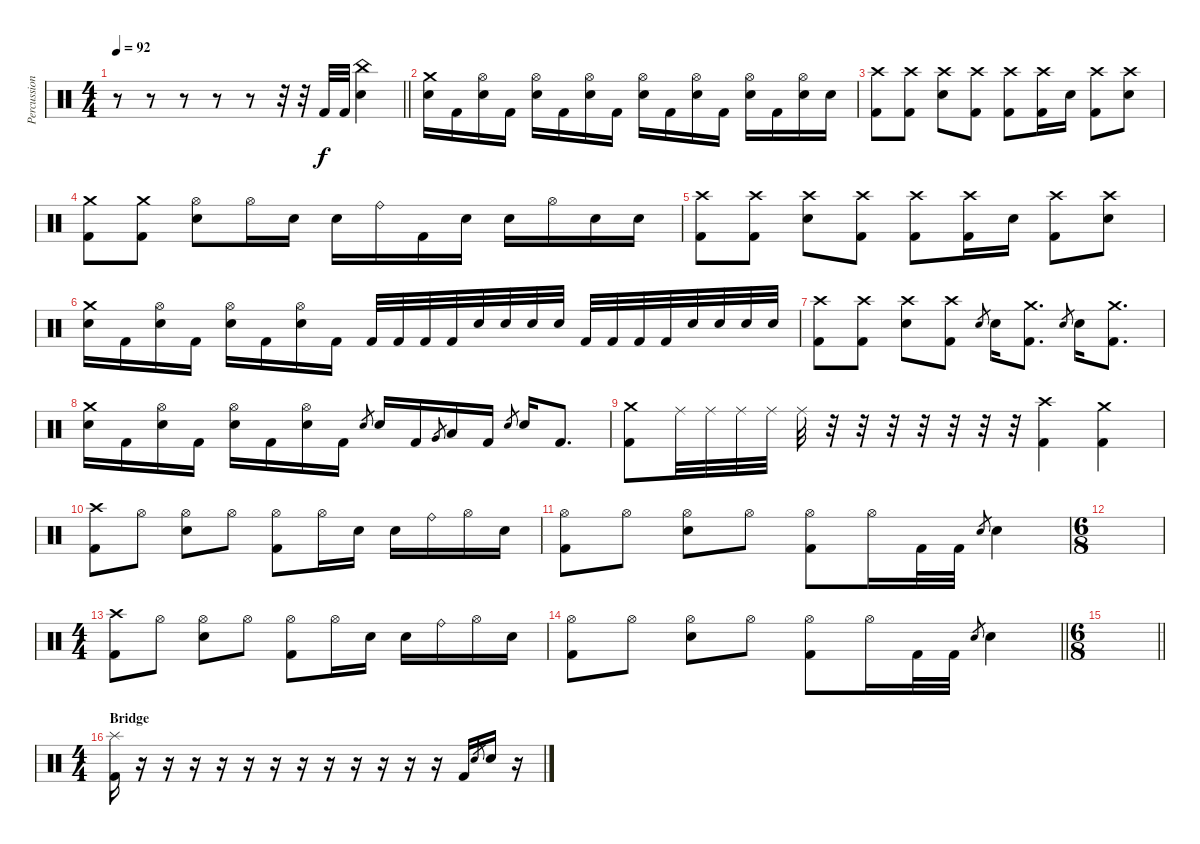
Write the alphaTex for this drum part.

\track ("Percussion" "Percussion") {solo instrument percussion}
\staff {score}
\articulation defaults
\ts (4 4)
\tempo 92
\clef neutral
\barLineRight lightlight
\ks c
r.8{dy f} r.8 r.8 r.8 r.8 r.32 r.32 "Kick (hit) 2".32 "Kick (hit) 2".32 ("China (hit)" "Electric Snare (hit)").4 |
("Crash medium (hit)" "Electric Snare (hit)").16 "Kick (hit) 2".16 ("Hi-Hat (open)" "Electric Snare (hit)").16 "Kick (hit) 2".16 ("Hi-Hat (open)" "Electric Snare (hit)").16 "Kick (hit) 2".16 ("Hi-Hat (open)" "Electric Snare (hit)").16 "Kick (hit) 2".16 ("Hi-Hat (open)" "Electric Snare (hit)").16 "Kick (hit) 2".16 ("Hi-Hat (open)" "Electric Snare (hit)").16 "Kick (hit) 2".16 ("Hi-Hat (open)" "Electric Snare (hit)").16 "Kick (hit) 2".16 ("Hi-Hat (open)" "Electric Snare (hit)").16 "Electric Snare (hit)".16 |
("Crash high (hit)" "Kick (hit) 2").8 ("Crash high (hit)" "Kick (hit) 2").8 ("Crash high (hit)" "Electric Snare (hit)").8 ("Crash high (hit)" "Kick (hit) 2").8 ("Crash high (hit)" "Kick (hit) 2").8 ("Crash high (hit)" "Kick (hit) 2").16 "Electric Snare (hit)".16 ("Crash high (hit)" "Kick (hit) 2").8 ("Crash high (hit)" "Electric Snare (hit)").8 |
("Crash medium (hit)" "Kick (hit) 2").8 ("Crash medium (hit)" "Kick (hit) 2").8 ("Hi-Hat (open)" "Electric Snare (hit)").8 "Hi-Hat (open)".16 "Electric Snare (hit)".16 "Electric Snare (hit)".16 "Ride (bell)".16 "Kick (hit) 2".16 "Electric Snare (hit)".16 "Electric Snare (hit)".16 "Hi-Hat (open)".16 "Electric Snare (hit)".16 "Electric Snare (hit)".16 |
("Crash high (hit)" "Kick (hit) 2").8 ("Crash high (hit)" "Kick (hit) 2").8 ("Crash high (hit)" "Electric Snare (hit)").8 ("Crash high (hit)" "Kick (hit) 2").8 ("Crash high (hit)" "Kick (hit) 2").8 ("Crash high (hit)" "Kick (hit) 2").16 "Electric Snare (hit)".16 ("Crash high (hit)" "Kick (hit) 2").8 ("Crash high (hit)" "Electric Snare (hit)").8 |
("Crash medium (hit)" "Electric Snare (hit)").16 "Kick (hit) 2".16 ("Hi-Hat (open)" "Electric Snare (hit)").16 "Kick (hit) 2".16 ("Hi-Hat (open)" "Electric Snare (hit)").16 "Kick (hit) 2".16 ("Hi-Hat (open)" "Electric Snare (hit)").16 "Kick (hit) 2".16 "Kick (hit) 2".32 "Kick (hit) 2".32 "Kick (hit) 2".32 "Kick (hit) 2".32 "Electric Snare (hit)".32 "Electric Snare (hit)".32 "Electric Snare (hit)".32 "Electric Snare (hit)".32 "Kick (hit) 2".32 "Kick (hit) 2".32 "Kick (hit) 2".32 "Kick (hit) 2".32 "Electric Snare (hit)".32 "Electric Snare (hit)".32 "Electric Snare (hit)".32 "Electric Snare (hit)".32 |
("Crash high (hit)" "Kick (hit) 2").8 ("Crash high (hit)" "Kick (hit) 2").8 ("Crash high (hit)" "Electric Snare (hit)").8 ("Crash high (hit)" "Kick (hit) 2").8 "Electric Snare (hit)".8{gr} "Electric Snare (hit)".16 ("Crash medium (hit)" "Kick (hit) 2").8{d} "Electric Snare (hit)".8{gr} "Electric Snare (hit)".16 ("Crash medium (hit)" "Kick (hit) 2").8{d} |
("Crash medium (hit)" "Electric Snare (hit)").16 "Kick (hit) 2".16 ("Hi-Hat (open)" "Electric Snare (hit)").16 "Kick (hit) 2".16 ("Hi-Hat (open)" "Electric Snare (hit)").16 "Kick (hit) 2".16 ("Hi-Hat (open)" "Electric Snare (hit)").16 "Kick (hit) 2".16 "Electric Snare (hit)".8{gr} "Electric Snare (hit)".16 "Kick (hit) 2".16 "Very Low Tom (hit)".8{gr} "Low Floor Tom (hit)".16 "Kick (hit) 2".16 "Electric Snare (hit)".8{gr} "Electric Snare (hit)".16 "Kick (hit) 2".8{d} |
("Crash medium (hit)" "Kick (hit) 2").8 "Ride (middle)".32 "Ride (middle)".32 "Ride (middle)".32 "Ride (middle)".32 "Ride (middle)".32 r.32 r.32 r.32 r.32 r.32 r.32 r.32 ("Crash high (hit)" "Kick (hit) 2").4 ("Crash medium (hit)" "Kick (hit) 2").4 |
("Crash high (hit)" "Kick (hit) 2").8 "Hi-Hat (open)".8 ("Hi-Hat (open)" "Electric Snare (hit)").8 "Hi-Hat (open)".8 ("Hi-Hat (open)" "Kick (hit) 2").8 "Hi-Hat (open)".16 "Electric Snare (hit)".16 "Electric Snare (hit)".16 "Ride (bell)".16 "Hi-Hat (open)".16 "Electric Snare (hit)".16 |
("Hi-Hat (open)" "Kick (hit) 2").8 "Hi-Hat (open)".8 ("Hi-Hat (open)" "Electric Snare (hit)").8 "Hi-Hat (open)".8 ("Hi-Hat (open)" "Kick (hit) 2").8 "Hi-Hat (open)".16 "Kick (hit) 2".32 "Kick (hit) 2".32 "Electric Snare (hit)".8{gr} "Electric Snare (hit)".4 |
\ts (6 8)
|
\ts (4 4)
("Crash high (hit)" "Kick (hit) 2").8 "Hi-Hat (open)".8 ("Hi-Hat (open)" "Electric Snare (hit)").8 "Hi-Hat (open)".8 ("Hi-Hat (open)" "Kick (hit) 2").8 "Hi-Hat (open)".16 "Electric Snare (hit)".16 "Electric Snare (hit)".16 "Ride (bell)".16 "Hi-Hat (open)".16 "Electric Snare (hit)".16 |
\barLineRight lightlight
("Hi-Hat (open)" "Kick (hit) 2").8 "Hi-Hat (open)".8 ("Hi-Hat (open)" "Electric Snare (hit)").8 "Hi-Hat (open)".8 ("Hi-Hat (open)" "Kick (hit) 2").8 "Hi-Hat (open)".16 "Kick (hit) 2".32 "Kick (hit) 2".32 "Electric Snare (hit)".8{gr} "Electric Snare (hit)".4 |
\ts (6 8)
\barLineRight lightlight
|
\ts (4 4)
\section ("" "Bridge")
("Splash (hit)" "Kick (hit) 2").16 r.16 r.16 r.16 r.16 r.16 r.16 r.16 r.16 r.16 r.16 r.16 r.16 "Kick (hit) 2".16 "Electric Snare (hit)".8{gr} "Electric Snare (hit)".16 r.16
